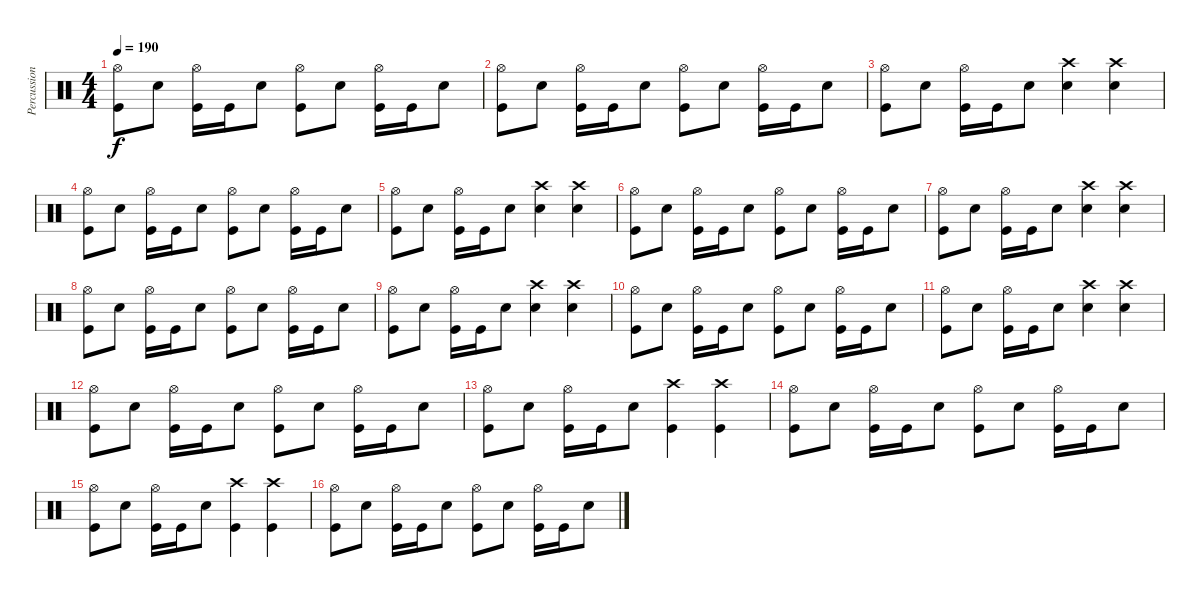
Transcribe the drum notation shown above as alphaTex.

\track ("Percussion" "Percussion") {instrument percussion}
\staff {score}
\articulation defaults
\ts (4 4)
\tempo 190
\clef neutral
\ks c
("Hi-Hat (open)" "Kick (hit)").8{dy f} "Snare (hit) 2".8 ("Hi-Hat (open)" "Kick (hit)").16 "Kick (hit)".16 "Snare (hit) 2".8 ("Hi-Hat (open)" "Kick (hit)").8 "Snare (hit) 2".8 ("Hi-Hat (open)" "Kick (hit)").16 "Kick (hit)".16 "Snare (hit) 2".8 |
("Hi-Hat (open)" "Kick (hit)").8 "Snare (hit) 2".8 ("Hi-Hat (open)" "Kick (hit)").16 "Kick (hit)".16 "Snare (hit) 2".8 ("Hi-Hat (open)" "Kick (hit)").8 "Snare (hit) 2".8 ("Hi-Hat (open)" "Kick (hit)").16 "Kick (hit)".16 "Snare (hit) 2".8 |
("Hi-Hat (open)" "Kick (hit)").8 "Snare (hit) 2".8 ("Hi-Hat (open)" "Kick (hit)").16 "Kick (hit)".16 "Snare (hit) 2".8 ("Crash high (hit)" "Snare (hit) 2").4 ("Crash high (hit)" "Snare (hit) 2").4 |
("Hi-Hat (open)" "Kick (hit)").8 "Snare (hit) 2".8 ("Hi-Hat (open)" "Kick (hit)").16 "Kick (hit)".16 "Snare (hit) 2".8 ("Hi-Hat (open)" "Kick (hit)").8 "Snare (hit) 2".8 ("Hi-Hat (open)" "Kick (hit)").16 "Kick (hit)".16 "Snare (hit) 2".8 |
("Hi-Hat (open)" "Kick (hit)").8 "Snare (hit) 2".8 ("Hi-Hat (open)" "Kick (hit)").16 "Kick (hit)".16 "Snare (hit) 2".8 ("Crash high (hit)" "Snare (hit) 2").4 ("Crash high (hit)" "Snare (hit) 2").4 |
("Hi-Hat (open)" "Kick (hit)").8 "Snare (hit) 2".8 ("Hi-Hat (open)" "Kick (hit)").16 "Kick (hit)".16 "Snare (hit) 2".8 ("Hi-Hat (open)" "Kick (hit)").8 "Snare (hit) 2".8 ("Hi-Hat (open)" "Kick (hit)").16 "Kick (hit)".16 "Snare (hit) 2".8 |
("Hi-Hat (open)" "Kick (hit)").8 "Snare (hit) 2".8 ("Hi-Hat (open)" "Kick (hit)").16 "Kick (hit)".16 "Snare (hit) 2".8 ("Crash high (hit)" "Snare (hit) 2").4 ("Crash high (hit)" "Snare (hit) 2").4 |
("Hi-Hat (open)" "Kick (hit)").8 "Snare (hit) 2".8 ("Hi-Hat (open)" "Kick (hit)").16 "Kick (hit)".16 "Snare (hit) 2".8 ("Hi-Hat (open)" "Kick (hit)").8 "Snare (hit) 2".8 ("Hi-Hat (open)" "Kick (hit)").16 "Kick (hit)".16 "Snare (hit) 2".8 |
("Hi-Hat (open)" "Kick (hit)").8 "Snare (hit) 2".8 ("Hi-Hat (open)" "Kick (hit)").16 "Kick (hit)".16 "Snare (hit) 2".8 ("Crash high (hit)" "Snare (hit) 2").4 ("Crash high (hit)" "Snare (hit) 2").4 |
("Hi-Hat (open)" "Kick (hit)").8 "Snare (hit) 2".8 ("Hi-Hat (open)" "Kick (hit)").16 "Kick (hit)".16 "Snare (hit) 2".8 ("Hi-Hat (open)" "Kick (hit)").8 "Snare (hit) 2".8 ("Hi-Hat (open)" "Kick (hit)").16 "Kick (hit)".16 "Snare (hit) 2".8 |
("Hi-Hat (open)" "Kick (hit)").8 "Snare (hit) 2".8 ("Hi-Hat (open)" "Kick (hit)").16 "Kick (hit)".16 "Snare (hit) 2".8 ("Crash high (hit)" "Snare (hit) 2").4 ("Crash high (hit)" "Snare (hit) 2").4 |
("Hi-Hat (open)" "Kick (hit)").8 "Snare (hit) 2".8 ("Hi-Hat (open)" "Kick (hit)").16 "Kick (hit)".16 "Snare (hit) 2".8 ("Hi-Hat (open)" "Kick (hit)").8 "Snare (hit) 2".8 ("Hi-Hat (open)" "Kick (hit)").16 "Kick (hit)".16 "Snare (hit) 2".8 |
("Hi-Hat (open)" "Kick (hit)").8 "Snare (hit) 2".8 ("Hi-Hat (open)" "Kick (hit)").16 "Kick (hit)".16 "Snare (hit) 2".8 ("Crash high (hit)" "Kick (hit)").4 ("Crash high (hit)" "Kick (hit)").4 |
("Hi-Hat (open)" "Kick (hit)").8 "Snare (hit) 2".8 ("Hi-Hat (open)" "Kick (hit)").16 "Kick (hit)".16 "Snare (hit) 2".8 ("Hi-Hat (open)" "Kick (hit)").8 "Snare (hit) 2".8 ("Hi-Hat (open)" "Kick (hit)").16 "Kick (hit)".16 "Snare (hit) 2".8 |
("Hi-Hat (open)" "Kick (hit)").8 "Snare (hit) 2".8 ("Hi-Hat (open)" "Kick (hit)").16 "Kick (hit)".16 "Snare (hit) 2".8 ("Crash high (hit)" "Kick (hit)").4 ("Crash high (hit)" "Kick (hit)").4 |
("Hi-Hat (open)" "Kick (hit)").8 "Snare (hit) 2".8 ("Hi-Hat (open)" "Kick (hit)").16 "Kick (hit)".16 "Snare (hit) 2".8 ("Hi-Hat (open)" "Kick (hit)").8 "Snare (hit) 2".8 ("Hi-Hat (open)" "Kick (hit)").16 "Kick (hit)".16 "Snare (hit) 2".8
